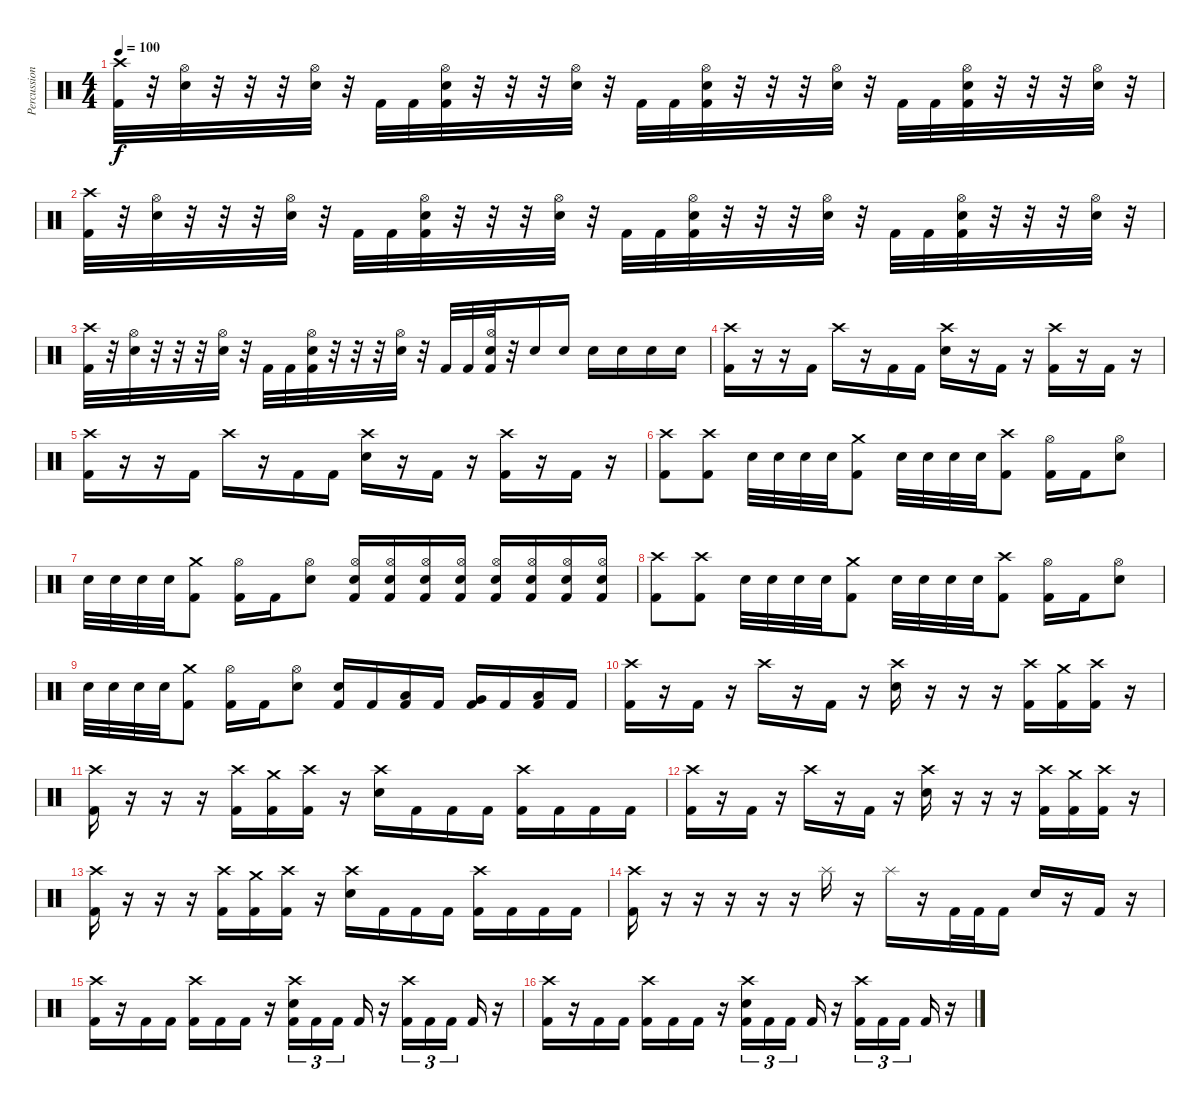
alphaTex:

\track ("Percussion" "Percussion") {instrument percussion}
\staff {score}
\articulation defaults
\ts (4 4)
\tempo 100
\clef neutral
\ks c
("Crash high (hit)" "Kick (hit) 2").32{dy f} r.32 ("Hi-Hat (open)" "Electric Snare (hit)").32 r.32 r.32 r.32 ("Hi-Hat (open)" "Electric Snare (hit)").32 r.32 "Kick (hit) 2".32 "Kick (hit) 2".32 ("Hi-Hat (open)" "Electric Snare (hit)" "Kick (hit) 2").32 r.32 r.32 r.32 ("Hi-Hat (open)" "Electric Snare (hit)").32 r.32 "Kick (hit) 2".32 "Kick (hit) 2".32 ("Hi-Hat (open)" "Electric Snare (hit)" "Kick (hit) 2").32 r.32 r.32 r.32 ("Hi-Hat (open)" "Electric Snare (hit)").32 r.32 "Kick (hit) 2".32 "Kick (hit) 2".32 ("Hi-Hat (open)" "Electric Snare (hit)" "Kick (hit) 2").32 r.32 r.32 r.32 ("Hi-Hat (open)" "Electric Snare (hit)").32 r.32 |
("Crash high (hit)" "Kick (hit) 2").32 r.32 ("Hi-Hat (open)" "Electric Snare (hit)").32 r.32 r.32 r.32 ("Hi-Hat (open)" "Electric Snare (hit)").32 r.32 "Kick (hit) 2".32 "Kick (hit) 2".32 ("Hi-Hat (open)" "Electric Snare (hit)" "Kick (hit) 2").32 r.32 r.32 r.32 ("Hi-Hat (open)" "Electric Snare (hit)").32 r.32 "Kick (hit) 2".32 "Kick (hit) 2".32 ("Hi-Hat (open)" "Electric Snare (hit)" "Kick (hit) 2").32 r.32 r.32 r.32 ("Hi-Hat (open)" "Electric Snare (hit)").32 r.32 "Kick (hit) 2".32 "Kick (hit) 2".32 ("Hi-Hat (open)" "Electric Snare (hit)" "Kick (hit) 2").32 r.32 r.32 r.32 ("Hi-Hat (open)" "Electric Snare (hit)").32 r.32 |
("Crash high (hit)" "Kick (hit) 2").32 r.32 ("Hi-Hat (open)" "Electric Snare (hit)").32 r.32 r.32 r.32 ("Hi-Hat (open)" "Electric Snare (hit)").32 r.32 "Kick (hit) 2".32 "Kick (hit) 2".32 ("Hi-Hat (open)" "Electric Snare (hit)" "Kick (hit) 2").32 r.32 r.32 r.32 ("Hi-Hat (open)" "Electric Snare (hit)").32 r.32 "Kick (hit) 2".32 "Kick (hit) 2".32 ("Hi-Hat (open)" "Electric Snare (hit)" "Kick (hit) 2").32 r.32 "Electric Snare (hit)".16 "Electric Snare (hit)".16 "Electric Snare (hit)".16 "Electric Snare (hit)".16 "Electric Snare (hit)".16 "Electric Snare (hit)".16 |
("Crash high (hit)" "Kick (hit) 2").16 r.16 r.16 "Kick (hit) 2".16 "Crash high (hit)".16 r.16 "Kick (hit) 2".16 "Kick (hit) 2".16 ("Crash high (hit)" "Electric Snare (hit)").16 r.16 "Kick (hit) 2".16 r.16 ("Crash high (hit)" "Kick (hit) 2").16 r.16 "Kick (hit) 2".16 r.16 |
("Crash high (hit)" "Kick (hit) 2").16 r.16 r.16 "Kick (hit) 2".16 "Crash high (hit)".16 r.16 "Kick (hit) 2".16 "Kick (hit) 2".16 ("Crash high (hit)" "Electric Snare (hit)").16 r.16 "Kick (hit) 2".16 r.16 ("Crash high (hit)" "Kick (hit) 2").16 r.16 "Kick (hit) 2".16 r.16 |
("Crash high (hit)" "Kick (hit) 2").8 ("Crash high (hit)" "Kick (hit) 2").8 "Electric Snare (hit)".32 "Electric Snare (hit)".32 "Electric Snare (hit)".32 "Electric Snare (hit)".32 ("Crash medium (hit)" "Kick (hit) 2").8 "Electric Snare (hit)".32 "Electric Snare (hit)".32 "Electric Snare (hit)".32 "Electric Snare (hit)".32 ("Crash high (hit)" "Kick (hit) 2").8 ("Hi-Hat (open)" "Kick (hit) 2").16 "Kick (hit) 2".16 ("Hi-Hat (open)" "Electric Snare (hit)").8 |
"Electric Snare (hit)".32 "Electric Snare (hit)".32 "Electric Snare (hit)".32 "Electric Snare (hit)".32 ("Crash medium (hit)" "Kick (hit) 2").8 ("Hi-Hat (open)" "Kick (hit) 2").16 "Kick (hit) 2".16 ("Hi-Hat (open)" "Electric Snare (hit)").8 ("Hi-Hat (open)" "Electric Snare (hit)" "Kick (hit) 2").16 ("Hi-Hat (open)" "Electric Snare (hit)" "Kick (hit) 2").16 ("Hi-Hat (open)" "Electric Snare (hit)" "Kick (hit) 2").16 ("Hi-Hat (open)" "Electric Snare (hit)" "Kick (hit) 2").16 ("Hi-Hat (open)" "Electric Snare (hit)" "Kick (hit) 2").16 ("Hi-Hat (open)" "Electric Snare (hit)" "Kick (hit) 2").16 ("Hi-Hat (open)" "Electric Snare (hit)" "Kick (hit) 2").16 ("Hi-Hat (open)" "Electric Snare (hit)" "Kick (hit) 2").16 |
("Crash high (hit)" "Kick (hit) 2").8 ("Crash high (hit)" "Kick (hit) 2").8 "Electric Snare (hit)".32 "Electric Snare (hit)".32 "Electric Snare (hit)".32 "Electric Snare (hit)".32 ("Crash medium (hit)" "Kick (hit) 2").8 "Electric Snare (hit)".32 "Electric Snare (hit)".32 "Electric Snare (hit)".32 "Electric Snare (hit)".32 ("Crash high (hit)" "Kick (hit) 2").8 ("Hi-Hat (open)" "Kick (hit) 2").16 "Kick (hit) 2".16 ("Hi-Hat (open)" "Electric Snare (hit)").8 |
"Electric Snare (hit)".32 "Electric Snare (hit)".32 "Electric Snare (hit)".32 "Electric Snare (hit)".32 ("Crash medium (hit)" "Kick (hit) 2").8 ("Hi-Hat (open)" "Kick (hit) 2").16 "Kick (hit) 2".16 ("Hi-Hat (open)" "Electric Snare (hit)").8 ("Electric Snare (hit)" "Kick (hit) 2").16 "Kick (hit) 2".16 ("Low Tom (hit)" "Kick (hit) 2").16 "Kick (hit) 2".16 ("Very Low Tom (hit)" "Kick (hit) 2").16 "Kick (hit) 2".16 ("Low Floor Tom (hit)" "Kick (hit) 2").16 "Kick (hit) 2".16 |
("Crash high (hit)" "Kick (hit) 2").16 r.16 "Kick (hit) 2".16 r.16 "Crash high (hit)".16 r.16 "Kick (hit) 2".16 r.16 ("Crash high (hit)" "Electric Snare (hit)").16 r.16 r.16 r.16 ("Crash high (hit)" "Kick (hit) 2").16 ("Crash medium (hit)" "Kick (hit) 2").16 ("Crash high (hit)" "Kick (hit) 2").16 r.16 |
("Crash high (hit)" "Kick (hit) 2").16 r.16 r.16 r.16 ("Crash high (hit)" "Kick (hit) 2").16 ("Crash medium (hit)" "Kick (hit) 2").16 ("Crash high (hit)" "Kick (hit) 2").16 r.16 ("Crash high (hit)" "Electric Snare (hit)").16 "Kick (hit) 2".16 "Kick (hit) 2".16 "Kick (hit) 2".16 ("Crash high (hit)" "Kick (hit) 2").16 "Kick (hit) 2".16 "Kick (hit) 2".16 "Kick (hit) 2".16 |
("Crash high (hit)" "Kick (hit) 2").16 r.16 "Kick (hit) 2".16 r.16 "Crash high (hit)".16 r.16 "Kick (hit) 2".16 r.16 ("Crash high (hit)" "Electric Snare (hit)").16 r.16 r.16 r.16 ("Crash high (hit)" "Kick (hit) 2").16 ("Crash medium (hit)" "Kick (hit) 2").16 ("Crash high (hit)" "Kick (hit) 2").16 r.16 |
("Crash high (hit)" "Kick (hit) 2").16 r.16 r.16 r.16 ("Crash high (hit)" "Kick (hit) 2").16 ("Crash medium (hit)" "Kick (hit) 2").16 ("Crash high (hit)" "Kick (hit) 2").16 r.16 ("Crash high (hit)" "Electric Snare (hit)").16 "Kick (hit) 2".16 "Kick (hit) 2".16 "Kick (hit) 2".16 ("Crash high (hit)" "Kick (hit) 2").16 "Kick (hit) 2".16 "Kick (hit) 2".16 "Kick (hit) 2".16 |
("Crash high (hit)" "Kick (hit) 2").16 r.16 r.16 r.16 r.16 r.16 "Splash (hit)".16 r.16 "Splash (hit)".16 r.16 "Kick (hit) 2".32 "Kick (hit) 2".32 "Kick (hit) 2".16 "Electric Snare (hit)".16 r.16 "Kick (hit) 2".16 r.16 |
("Crash high (hit)" "Kick (hit) 2").16 r.16 "Kick (hit) 2".16 "Kick (hit) 2".16 ("Crash high (hit)" "Kick (hit) 2").16 "Kick (hit) 2".16 "Kick (hit) 2".16 r.16 ("Crash high (hit)" "Electric Snare (hit)" "Kick (hit) 2").16{tu (3 2)} "Kick (hit) 2".16{tu (3 2)} "Kick (hit) 2".16{tu (3 2) beam splitsecondary} "Kick (hit) 2".16 r.16 ("Crash high (hit)" "Kick (hit) 2").16{tu (3 2)} "Kick (hit) 2".16{tu (3 2)} "Kick (hit) 2".16{tu (3 2) beam splitsecondary} "Kick (hit) 2".16 r.16 |
("Crash high (hit)" "Kick (hit) 2").16 r.16 "Kick (hit) 2".16 "Kick (hit) 2".16 ("Crash high (hit)" "Kick (hit) 2").16 "Kick (hit) 2".16 "Kick (hit) 2".16 r.16 ("Crash high (hit)" "Electric Snare (hit)" "Kick (hit) 2").16{tu (3 2)} "Kick (hit) 2".16{tu (3 2)} "Kick (hit) 2".16{tu (3 2) beam splitsecondary} "Kick (hit) 2".16 r.16 ("Crash high (hit)" "Kick (hit) 2").16{tu (3 2)} "Kick (hit) 2".16{tu (3 2)} "Kick (hit) 2".16{tu (3 2) beam splitsecondary} "Kick (hit) 2".16 r.16
